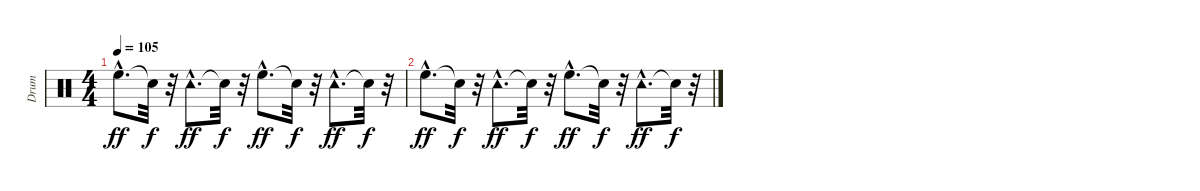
\track ("Drum" "Drum") {instrument percussion}
\staff {score}
\articulation defaults
\ts (4 4)
\tempo 105
\clef neutral
\ks c "High Floor Tom (hit)"{hac}.8{d dy ff} "Snare (hit)"{t}.32{dy f}
r.32 "Tambourine (hit)"{hac}.8{d dy ff} "Snare (hit)"{t}.32{dy f} r.32 "High Floor Tom (hit)"{hac}.8{d dy ff} "Snare (hit)"{t}.32{dy f} r.32 "Tambourine (hit)"{hac}.8{d dy ff} "Snare (hit)"{t}.32{dy f} r.32 |
"High Floor Tom (hit)"{hac}.8{d dy ff} "Snare (hit)"{t}.32{dy f} r.32 "Tambourine (hit)"{hac}.8{d dy ff} "Snare (hit)"{t}.32{dy f} r.32 "High Floor Tom (hit)"{hac}.8{d dy ff} "Snare (hit)"{t}.32{dy f} r.32 "Tambourine (hit)"{hac}.8{d dy ff} "Snare (hit)"{t}.32{dy f} r.32
